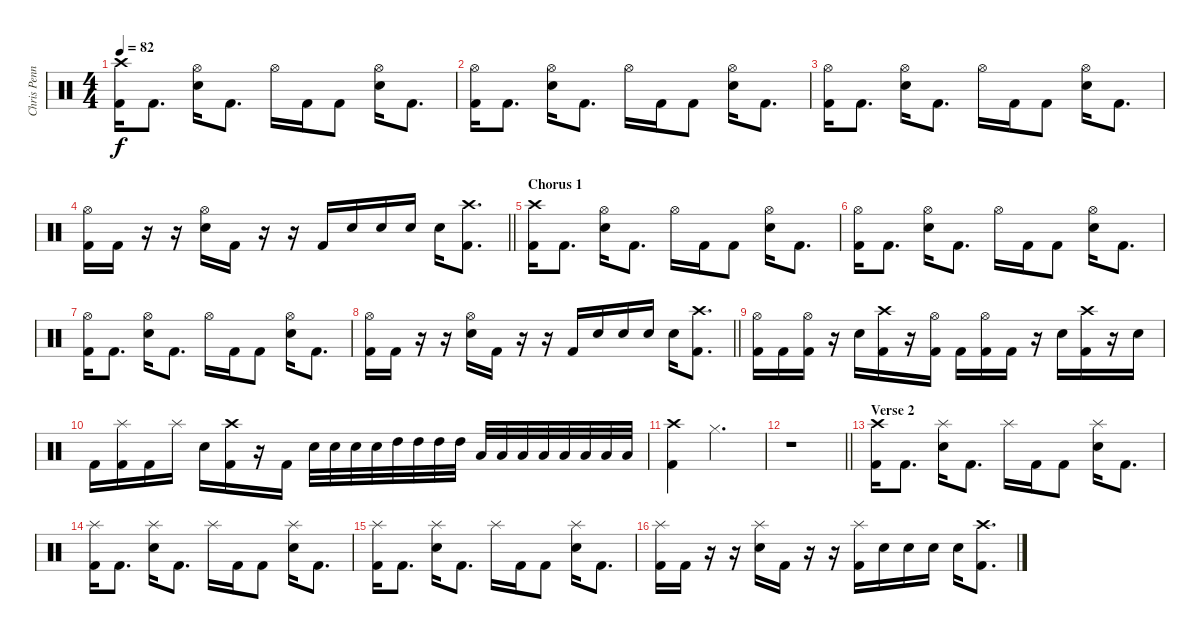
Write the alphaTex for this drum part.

\track ("Chris Pennie" "Chris Penn") {instrument percussion}
\staff {score}
\articulation defaults
\ts (4 4)
\tempo 82
\clef neutral
\ks c
("Crash high (hit)" "Kick (hit) 2").16{dy f} "Kick (hit) 2".8{d} ("Hi-Hat (open)" "Electric Snare (hit)").16 "Kick (hit) 2".8{d} "Hi-Hat (open)".16 "Kick (hit) 2".16 "Kick (hit) 2".8 ("Hi-Hat (open)" "Electric Snare (hit)").16 "Kick (hit) 2".8{d} |
("Hi-Hat (open)" "Kick (hit) 2").16 "Kick (hit) 2".8{d} ("Hi-Hat (open)" "Electric Snare (hit)").16 "Kick (hit) 2".8{d} "Hi-Hat (open)".16 "Kick (hit) 2".16 "Kick (hit) 2".8 ("Hi-Hat (open)" "Electric Snare (hit)").16 "Kick (hit) 2".8{d} |
("Hi-Hat (open)" "Kick (hit) 2").16 "Kick (hit) 2".8{d} ("Hi-Hat (open)" "Electric Snare (hit)").16 "Kick (hit) 2".8{d} "Hi-Hat (open)".16 "Kick (hit) 2".16 "Kick (hit) 2".8 ("Hi-Hat (open)" "Electric Snare (hit)").16 "Kick (hit) 2".8{d} |
\barLineRight lightlight
("Hi-Hat (open)" "Kick (hit) 2").16 "Kick (hit) 2".16 r.16 r.16 ("Hi-Hat (open)" "Electric Snare (hit)").16 "Kick (hit) 2".16 r.16 r.16 "Kick (hit) 2".16 "Electric Snare (hit)".16 "Electric Snare (hit)".16 "Electric Snare (hit)".16 "Electric Snare (hit)".16 ("Crash high (hit)" "Kick (hit) 2").8{d} |
\section ("" "Chorus 1")
("Crash high (hit)" "Kick (hit) 2").16 "Kick (hit) 2".8{d} ("Hi-Hat (open)" "Electric Snare (hit)").16 "Kick (hit) 2".8{d} "Hi-Hat (open)".16 "Kick (hit) 2".16 "Kick (hit) 2".8 ("Hi-Hat (open)" "Electric Snare (hit)").16 "Kick (hit) 2".8{d} |
("Hi-Hat (open)" "Kick (hit) 2").16 "Kick (hit) 2".8{d} ("Hi-Hat (open)" "Electric Snare (hit)").16 "Kick (hit) 2".8{d} "Hi-Hat (open)".16 "Kick (hit) 2".16 "Kick (hit) 2".8 ("Hi-Hat (open)" "Electric Snare (hit)").16 "Kick (hit) 2".8{d} |
("Hi-Hat (open)" "Kick (hit) 2").16 "Kick (hit) 2".8{d} ("Hi-Hat (open)" "Electric Snare (hit)").16 "Kick (hit) 2".8{d} "Hi-Hat (open)".16 "Kick (hit) 2".16 "Kick (hit) 2".8 ("Hi-Hat (open)" "Electric Snare (hit)").16 "Kick (hit) 2".8{d} |
\barLineRight lightlight
("Hi-Hat (open)" "Kick (hit) 2").16 "Kick (hit) 2".16 r.16 r.16 ("Hi-Hat (open)" "Electric Snare (hit)").16 "Kick (hit) 2".16 r.16 r.16 "Kick (hit) 2".16 "Electric Snare (hit)".16 "Electric Snare (hit)".16 "Electric Snare (hit)".16 "Electric Snare (hit)".16 ("Crash high (hit)" "Kick (hit) 2").8{d} |
("Hi-Hat (open)" "Kick (hit) 2").16 "Kick (hit) 2".16 ("Hi-Hat (open)" "Kick (hit) 2").16 r.16 "Electric Snare (hit)".16 ("Crash high (hit)" "Kick (hit) 2").16 r.16 ("Hi-Hat (open)" "Kick (hit) 2").16 "Kick (hit) 2".16 ("Hi-Hat (open)" "Kick (hit) 2").16 "Kick (hit) 2".16 r.16 "Electric Snare (hit)".16 ("Crash high (hit)" "Kick (hit) 2").16 r.16 "Electric Snare (hit)".16 |
"Kick (hit) 2".16 ("Splash (hit)" "Kick (hit) 2").16 "Kick (hit) 2".16 "Splash (hit)".16 "Electric Snare (hit)".16 ("Crash high (hit)" "Kick (hit) 2").16 r.16 "Kick (hit) 2".16 "Electric Snare (hit)".32 "Electric Snare (hit)".32 "Electric Snare (hit)".32 "Electric Snare (hit)".32 "High Tom (hit)".32 "High Tom (hit)".32 "High Tom (hit)".32 "High Tom (hit)".32 "Low Floor Tom (hit)".32 "Low Floor Tom (hit)".32 "Low Floor Tom (hit)".32 "Low Floor Tom (hit)".32 "Low Floor Tom (hit)".32 "Low Floor Tom (hit)".32 "Low Floor Tom (hit)".32 "Low Floor Tom (hit)".32 |
("Crash high (hit)" "Kick (hit) 2").4 "Hi-Hat (closed)".2{d} |
\barLineRight lightlight
r.1 |
\section ("" "Verse 2")
("Crash high (hit)" "Kick (hit) 2").16 "Kick (hit) 2".8{d} ("Splash (hit)" "Electric Snare (hit)").16 "Kick (hit) 2".8{d} "Splash (hit)".16 "Kick (hit) 2".16 "Kick (hit) 2".8 ("Splash (hit)" "Electric Snare (hit)").16 "Kick (hit) 2".8{d} |
("Splash (hit)" "Kick (hit) 2").16 "Kick (hit) 2".8{d} ("Splash (hit)" "Electric Snare (hit)").16 "Kick (hit) 2".8{d} "Splash (hit)".16 "Kick (hit) 2".16 "Kick (hit) 2".8 ("Splash (hit)" "Electric Snare (hit)").16 "Kick (hit) 2".8{d} |
("Splash (hit)" "Kick (hit) 2").16 "Kick (hit) 2".8{d} ("Splash (hit)" "Electric Snare (hit)").16 "Kick (hit) 2".8{d} "Splash (hit)".16 "Kick (hit) 2".16 "Kick (hit) 2".8 ("Splash (hit)" "Electric Snare (hit)").16 "Kick (hit) 2".8{d} |
("Splash (hit)" "Kick (hit) 2").16 "Kick (hit) 2".16 r.16 r.16 ("Splash (hit)" "Electric Snare (hit)").16 "Kick (hit) 2".16 r.16 r.16 ("Splash (hit)" "Kick (hit) 2").16 "Electric Snare (hit)".16 "Electric Snare (hit)".16 "Electric Snare (hit)".16 "Electric Snare (hit)".16 ("Crash high (hit)" "Kick (hit) 2").8{d}
